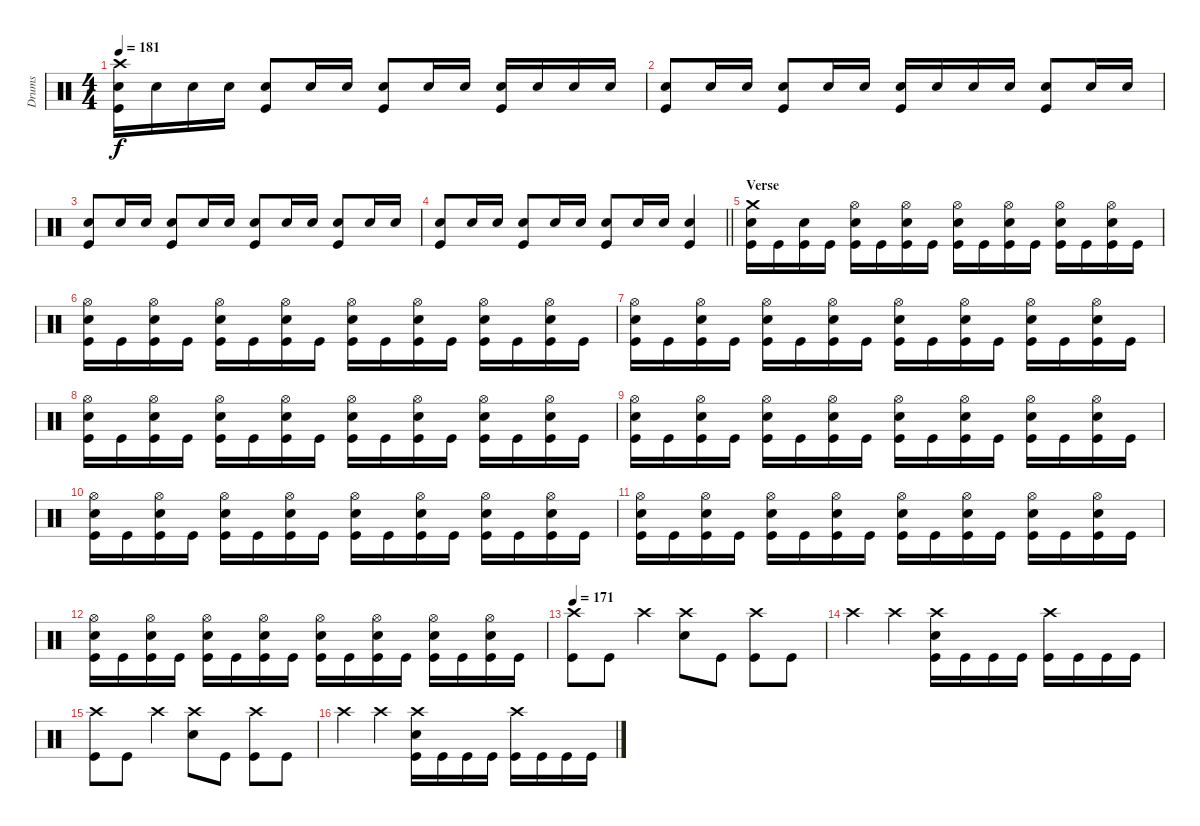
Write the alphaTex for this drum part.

\track ("Drums" "Drums") {instrument percussion}
\staff {score}
\articulation defaults
\ts (4 4)
\tempo 181
\clef neutral
\ks c
("Crash high (hit)" "Snare (hit) 2" "Kick (hit)").16{dy f} "Snare (hit) 2".16 "Snare (hit) 2".16 "Snare (hit) 2".16 ("Snare (hit) 2" "Kick (hit)").8 "Snare (hit) 2".16 "Snare (hit) 2".16 ("Snare (hit) 2" "Kick (hit)").8 "Snare (hit) 2".16 "Snare (hit) 2".16 ("Snare (hit) 2" "Kick (hit)").16 "Snare (hit) 2".16 "Snare (hit) 2".16 "Snare (hit) 2".16 |
("Snare (hit) 2" "Kick (hit)").8 "Snare (hit) 2".16 "Snare (hit) 2".16 ("Snare (hit) 2" "Kick (hit)").8 "Snare (hit) 2".16 "Snare (hit) 2".16 ("Snare (hit) 2" "Kick (hit)").16 "Snare (hit) 2".16 "Snare (hit) 2".16 "Snare (hit) 2".16 ("Snare (hit) 2" "Kick (hit)").8 "Snare (hit) 2".16 "Snare (hit) 2".16 |
("Snare (hit) 2" "Kick (hit)").8 "Snare (hit) 2".16 "Snare (hit) 2".16 ("Snare (hit) 2" "Kick (hit)").8 "Snare (hit) 2".16 "Snare (hit) 2".16 ("Snare (hit) 2" "Kick (hit)").8 "Snare (hit) 2".16 "Snare (hit) 2".16 ("Snare (hit) 2" "Kick (hit)").8 "Snare (hit) 2".16 "Snare (hit) 2".16 |
\barLineRight lightlight
("Snare (hit) 2" "Kick (hit)").8 "Snare (hit) 2".16 "Snare (hit) 2".16 ("Snare (hit) 2" "Kick (hit)").8 "Snare (hit) 2".16 "Snare (hit) 2".16 ("Snare (hit) 2" "Kick (hit)").8 "Snare (hit) 2".16 "Snare (hit) 2".16 ("Snare (hit) 2" "Kick (hit)").4 |
\section ("" "Verse")
("Crash medium (hit)" "Snare (hit) 2" "Kick (hit)").16 "Kick (hit)".16 ("Snare (hit) 2" "Kick (hit)").16 "Kick (hit)".16 ("Hi-Hat (open)" "Snare (hit) 2" "Kick (hit)").16 "Kick (hit)".16 ("Hi-Hat (open)" "Snare (hit) 2" "Kick (hit)").16 "Kick (hit)".16 ("Hi-Hat (open)" "Snare (hit) 2" "Kick (hit)").16 "Kick (hit)".16 ("Hi-Hat (open)" "Snare (hit) 2" "Kick (hit)").16 "Kick (hit)".16 ("Hi-Hat (open)" "Snare (hit) 2" "Kick (hit)").16 "Kick (hit)".16 ("Hi-Hat (open)" "Snare (hit) 2" "Kick (hit)").16 "Kick (hit)".16 |
("Hi-Hat (open)" "Snare (hit) 2" "Kick (hit)").16 "Kick (hit)".16 ("Hi-Hat (open)" "Snare (hit) 2" "Kick (hit)").16 "Kick (hit)".16 ("Hi-Hat (open)" "Snare (hit) 2" "Kick (hit)").16 "Kick (hit)".16 ("Hi-Hat (open)" "Snare (hit) 2" "Kick (hit)").16 "Kick (hit)".16 ("Hi-Hat (open)" "Snare (hit) 2" "Kick (hit)").16 "Kick (hit)".16 ("Hi-Hat (open)" "Snare (hit) 2" "Kick (hit)").16 "Kick (hit)".16 ("Hi-Hat (open)" "Snare (hit) 2" "Kick (hit)").16 "Kick (hit)".16 ("Hi-Hat (open)" "Snare (hit) 2" "Kick (hit)").16 "Kick (hit)".16 |
("Hi-Hat (open)" "Snare (hit) 2" "Kick (hit)").16 "Kick (hit)".16 ("Hi-Hat (open)" "Snare (hit) 2" "Kick (hit)").16 "Kick (hit)".16 ("Hi-Hat (open)" "Snare (hit) 2" "Kick (hit)").16 "Kick (hit)".16 ("Hi-Hat (open)" "Snare (hit) 2" "Kick (hit)").16 "Kick (hit)".16 ("Hi-Hat (open)" "Snare (hit) 2" "Kick (hit)").16 "Kick (hit)".16 ("Hi-Hat (open)" "Snare (hit) 2" "Kick (hit)").16 "Kick (hit)".16 ("Hi-Hat (open)" "Snare (hit) 2" "Kick (hit)").16 "Kick (hit)".16 ("Hi-Hat (open)" "Snare (hit) 2" "Kick (hit)").16 "Kick (hit)".16 |
("Hi-Hat (open)" "Snare (hit) 2" "Kick (hit)").16 "Kick (hit)".16 ("Hi-Hat (open)" "Snare (hit) 2" "Kick (hit)").16 "Kick (hit)".16 ("Hi-Hat (open)" "Snare (hit) 2" "Kick (hit)").16 "Kick (hit)".16 ("Hi-Hat (open)" "Snare (hit) 2" "Kick (hit)").16 "Kick (hit)".16 ("Hi-Hat (open)" "Snare (hit) 2" "Kick (hit)").16 "Kick (hit)".16 ("Hi-Hat (open)" "Snare (hit) 2" "Kick (hit)").16 "Kick (hit)".16 ("Hi-Hat (open)" "Snare (hit) 2" "Kick (hit)").16 "Kick (hit)".16 ("Hi-Hat (open)" "Snare (hit) 2" "Kick (hit)").16 "Kick (hit)".16 |
("Hi-Hat (open)" "Snare (hit) 2" "Kick (hit)").16 "Kick (hit)".16 ("Hi-Hat (open)" "Snare (hit) 2" "Kick (hit)").16 "Kick (hit)".16 ("Hi-Hat (open)" "Snare (hit) 2" "Kick (hit)").16 "Kick (hit)".16 ("Hi-Hat (open)" "Snare (hit) 2" "Kick (hit)").16 "Kick (hit)".16 ("Hi-Hat (open)" "Snare (hit) 2" "Kick (hit)").16 "Kick (hit)".16 ("Hi-Hat (open)" "Snare (hit) 2" "Kick (hit)").16 "Kick (hit)".16 ("Hi-Hat (open)" "Snare (hit) 2" "Kick (hit)").16 "Kick (hit)".16 ("Hi-Hat (open)" "Snare (hit) 2" "Kick (hit)").16 "Kick (hit)".16 |
("Hi-Hat (open)" "Snare (hit) 2" "Kick (hit)").16 "Kick (hit)".16 ("Hi-Hat (open)" "Snare (hit) 2" "Kick (hit)").16 "Kick (hit)".16 ("Hi-Hat (open)" "Snare (hit) 2" "Kick (hit)").16 "Kick (hit)".16 ("Hi-Hat (open)" "Snare (hit) 2" "Kick (hit)").16 "Kick (hit)".16 ("Hi-Hat (open)" "Snare (hit) 2" "Kick (hit)").16 "Kick (hit)".16 ("Hi-Hat (open)" "Snare (hit) 2" "Kick (hit)").16 "Kick (hit)".16 ("Hi-Hat (open)" "Snare (hit) 2" "Kick (hit)").16 "Kick (hit)".16 ("Hi-Hat (open)" "Snare (hit) 2" "Kick (hit)").16 "Kick (hit)".16 |
("Hi-Hat (open)" "Snare (hit) 2" "Kick (hit)").16 "Kick (hit)".16 ("Hi-Hat (open)" "Snare (hit) 2" "Kick (hit)").16 "Kick (hit)".16 ("Hi-Hat (open)" "Snare (hit) 2" "Kick (hit)").16 "Kick (hit)".16 ("Hi-Hat (open)" "Snare (hit) 2" "Kick (hit)").16 "Kick (hit)".16 ("Hi-Hat (open)" "Snare (hit) 2" "Kick (hit)").16 "Kick (hit)".16 ("Hi-Hat (open)" "Snare (hit) 2" "Kick (hit)").16 "Kick (hit)".16 ("Hi-Hat (open)" "Snare (hit) 2" "Kick (hit)").16 "Kick (hit)".16 ("Hi-Hat (open)" "Snare (hit) 2" "Kick (hit)").16 "Kick (hit)".16 |
("Hi-Hat (open)" "Snare (hit) 2" "Kick (hit)").16 "Kick (hit)".16 ("Hi-Hat (open)" "Snare (hit) 2" "Kick (hit)").16 "Kick (hit)".16 ("Hi-Hat (open)" "Snare (hit) 2" "Kick (hit)").16 "Kick (hit)".16 ("Hi-Hat (open)" "Snare (hit) 2" "Kick (hit)").16 "Kick (hit)".16 ("Hi-Hat (open)" "Snare (hit) 2" "Kick (hit)").16 "Kick (hit)".16 ("Hi-Hat (open)" "Snare (hit) 2" "Kick (hit)").16 "Kick (hit)".16 ("Hi-Hat (open)" "Snare (hit) 2" "Kick (hit)").16 "Kick (hit)".16 ("Hi-Hat (open)" "Snare (hit) 2" "Kick (hit)").16 "Kick (hit)".16 |
\tempo 171
("Crash high (hit)" "Kick (hit)").8 "Kick (hit)".8 "Crash high (hit)".4 ("Crash high (hit)" "Snare (hit) 2").8 "Kick (hit)".8 ("Crash high (hit)" "Kick (hit)").8 "Kick (hit)".8 |
"Crash high (hit)".4 "Crash high (hit)".4 ("Crash high (hit)" "Snare (hit) 2" "Kick (hit)").16 "Kick (hit)".16 "Kick (hit)".16 "Kick (hit)".16 ("Crash high (hit)" "Kick (hit)").16 "Kick (hit)".16 "Kick (hit)".16 "Kick (hit)".16 |
("Crash high (hit)" "Kick (hit)").8 "Kick (hit)".8 "Crash high (hit)".4 ("Crash high (hit)" "Snare (hit) 2").8 "Kick (hit)".8 ("Crash high (hit)" "Kick (hit)").8 "Kick (hit)".8 |
"Crash high (hit)".4 "Crash high (hit)".4 ("Crash high (hit)" "Snare (hit) 2" "Kick (hit)").16 "Kick (hit)".16 "Kick (hit)".16 "Kick (hit)".16 ("Crash high (hit)" "Kick (hit)").16 "Kick (hit)".16 "Kick (hit)".16 "Kick (hit)".16
